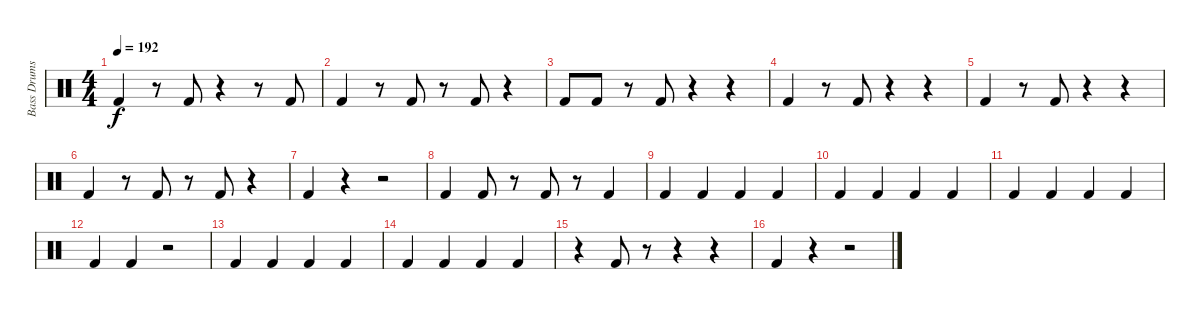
\track ("Bass Drums" "Bass Drums") {instrument percussion}
\staff {score}
\articulation defaults
\ts (4 4)
\tempo 192
\clef neutral
\ks c "Kick (hit) 2".4{dy f}
r.8 "Kick (hit) 2".8 r.4 r.8 "Kick (hit) 2".8 |
"Kick (hit) 2".4 r.8 "Kick (hit) 2".8 r.8 "Kick (hit) 2".8 r.4 |
"Kick (hit) 2".8 "Kick (hit) 2".8 r.8 "Kick (hit) 2".8 r.4 r.4 |
"Kick (hit) 2".4 r.8 "Kick (hit) 2".8 r.4 r.4 |
"Kick (hit) 2".4 r.8 "Kick (hit) 2".8 r.4 r.4 |
"Kick (hit) 2".4 r.8 "Kick (hit) 2".8 r.8 "Kick (hit) 2".8 r.4 |
"Kick (hit) 2".4 r.4 r.2 |
"Kick (hit) 2".4 "Kick (hit) 2".8 r.8 "Kick (hit) 2".8 r.8 "Kick (hit) 2".4 |
"Kick (hit) 2".4 "Kick (hit) 2".4 "Kick (hit) 2".4 "Kick (hit) 2".4 |
"Kick (hit) 2".4 "Kick (hit) 2".4 "Kick (hit) 2".4 "Kick (hit) 2".4 |
"Kick (hit) 2".4 "Kick (hit) 2".4 "Kick (hit) 2".4 "Kick (hit) 2".4 |
"Kick (hit) 2".4 "Kick (hit) 2".4 r.2 |
"Kick (hit) 2".4 "Kick (hit) 2".4 "Kick (hit) 2".4 "Kick (hit) 2".4 |
"Kick (hit) 2".4 "Kick (hit) 2".4 "Kick (hit) 2".4 "Kick (hit) 2".4 |
r.4 "Kick (hit) 2".8 r.8 r.4 r.4 |
"Kick (hit) 2".4 r.4 r.2
